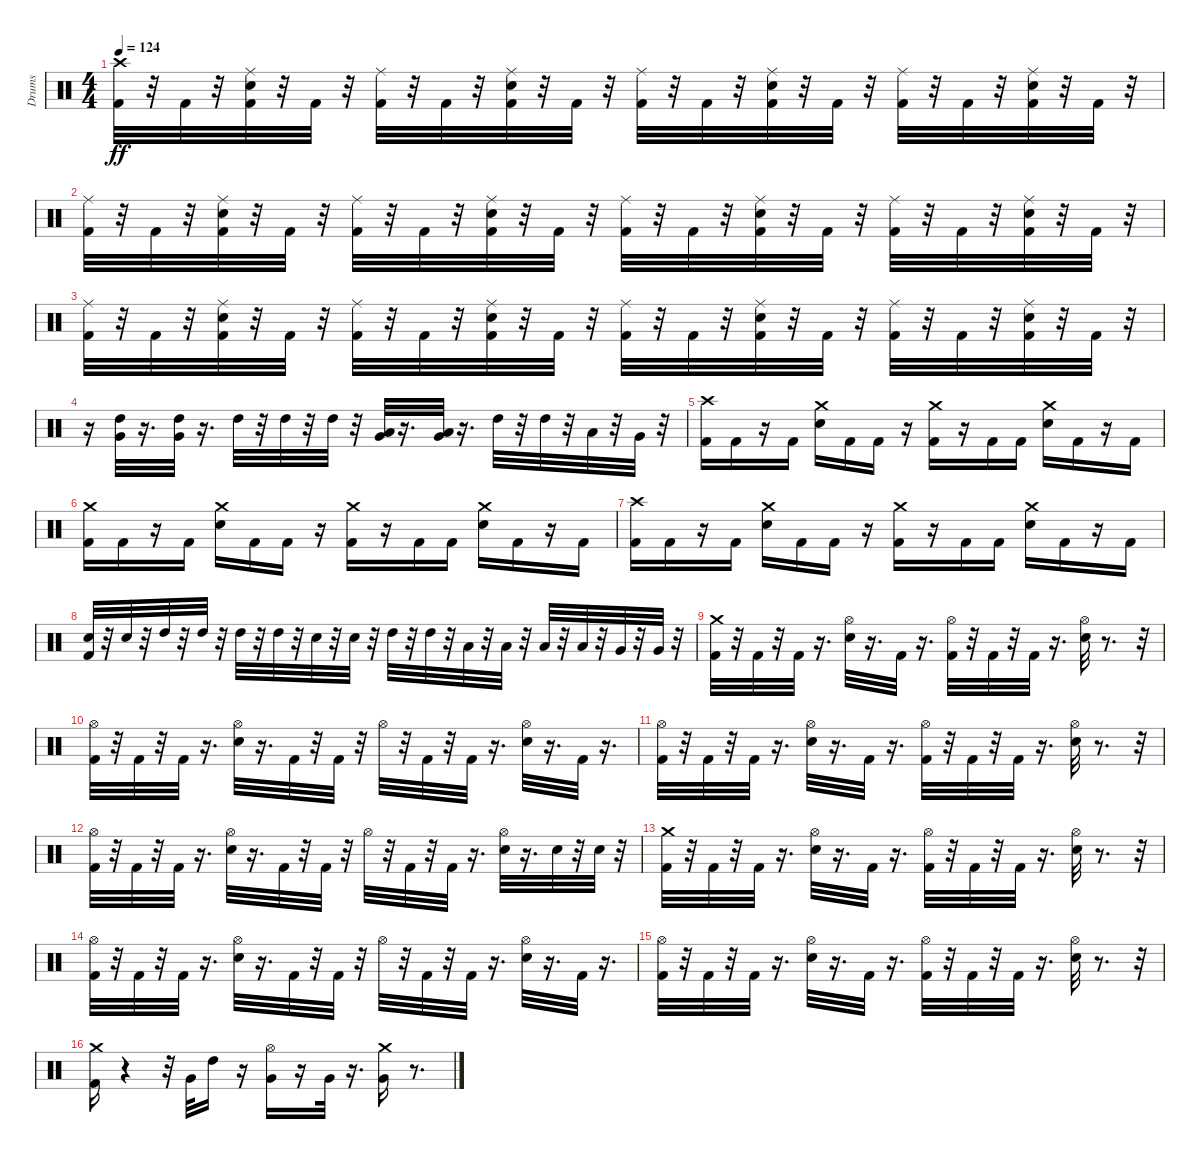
\track ("Drums" "Drums") {instrument percussion}
\staff {score}
\articulation defaults
\ts (4 4)
\tempo 124
\clef neutral
\ks c
("Kick (hit) 2" "Crash high (hit)").32{dy ff} r.32 "Kick (hit) 2".32 r.32 ("Kick (hit) 2" "Electric Snare (hit)" "Ride (middle)").32 r.32 "Kick (hit) 2".32 r.32 ("Kick (hit) 2" "Ride (middle)").32 r.32 "Kick (hit) 2".32 r.32 ("Electric Snare (hit)" "Kick (hit) 2" "Ride (middle)").32 r.32 "Kick (hit) 2".32 r.32 ("Kick (hit) 2" "Ride (middle)").32 r.32 "Kick (hit) 2".32 r.32 ("Electric Snare (hit)" "Kick (hit) 2" "Ride (middle)").32 r.32 "Kick (hit) 2".32 r.32 ("Kick (hit) 2" "Ride (middle)").32 r.32 "Kick (hit) 2".32 r.32 ("Electric Snare (hit)" "Kick (hit) 2" "Ride (middle)").32 r.32 "Kick (hit) 2".32 r.32 |
("Kick (hit) 2" "Ride (middle)").32 r.32 "Kick (hit) 2".32 r.32 ("Kick (hit) 2" "Electric Snare (hit)" "Ride (middle)").32 r.32 "Kick (hit) 2".32 r.32 ("Kick (hit) 2" "Ride (middle)").32 r.32 "Kick (hit) 2".32 r.32 ("Electric Snare (hit)" "Kick (hit) 2" "Ride (middle)").32 r.32 "Kick (hit) 2".32 r.32 ("Kick (hit) 2" "Ride (middle)").32 r.32 "Kick (hit) 2".32 r.32 ("Electric Snare (hit)" "Kick (hit) 2" "Ride (middle)").32 r.32 "Kick (hit) 2".32 r.32 ("Kick (hit) 2" "Ride (middle)").32 r.32 "Kick (hit) 2".32 r.32 ("Electric Snare (hit)" "Kick (hit) 2" "Ride (middle)").32 r.32 "Kick (hit) 2".32 r.32 |
("Kick (hit) 2" "Ride (middle)").32 r.32 "Kick (hit) 2".32 r.32 ("Kick (hit) 2" "Electric Snare (hit)" "Ride (middle)").32 r.32 "Kick (hit) 2".32 r.32 ("Kick (hit) 2" "Ride (middle)").32 r.32 "Kick (hit) 2".32 r.32 ("Electric Snare (hit)" "Kick (hit) 2" "Ride (middle)").32 r.32 "Kick (hit) 2".32 r.32 ("Kick (hit) 2" "Ride (middle)").32 r.32 "Kick (hit) 2".32 r.32 ("Electric Snare (hit)" "Kick (hit) 2" "Ride (middle)").32 r.32 "Kick (hit) 2".32 r.32 ("Kick (hit) 2" "Ride (middle)").32 r.32 "Kick (hit) 2".32 r.32 ("Electric Snare (hit)" "Kick (hit) 2" "Ride (middle)").32 r.32 "Kick (hit) 2".32 r.32 |
r.16 ("Very Low Tom (hit)" "High Tom (hit)").32 r.16{d} ("Very Low Tom (hit)" "High Tom (hit)").32 r.16{d} "High Tom (hit)".32 r.32 "High Tom (hit)".32 r.32 "High Tom (hit)".32 r.32 ("Very Low Tom (hit)" "Low Tom (hit)").32 r.16{d} ("Low Tom (hit)" "Very Low Tom (hit)").32 r.16{d} "High Tom (hit)".32 r.32 "High Tom (hit)".32 r.32 "Low Tom (hit)".32 r.32 "Very Low Tom (hit)".32 r.32 |
("Kick (hit) 2" "Crash high (hit)").16 "Kick (hit) 2".16 r.16 "Kick (hit) 2".16 ("Crash medium (hit)" "Electric Snare (hit)").16 "Kick (hit) 2".16 "Kick (hit) 2".16 r.16 ("Crash medium (hit)" "Kick (hit) 2").16 r.16 "Kick (hit) 2".16 "Kick (hit) 2".16 ("Crash medium (hit)" "Electric Snare (hit)").16 "Kick (hit) 2".16 r.16 "Kick (hit) 2".16 |
("Crash medium (hit)" "Kick (hit) 2").16 "Kick (hit) 2".16 r.16 "Kick (hit) 2".16 ("Crash medium (hit)" "Electric Snare (hit)").16 "Kick (hit) 2".16 "Kick (hit) 2".16 r.16 ("Crash medium (hit)" "Kick (hit) 2").16 r.16 "Kick (hit) 2".16 "Kick (hit) 2".16 ("Crash medium (hit)" "Electric Snare (hit)").16 "Kick (hit) 2".16 r.16 "Kick (hit) 2".16 |
("Kick (hit) 2" "Crash high (hit)").16 "Kick (hit) 2".16 r.16 "Kick (hit) 2".16 ("Crash medium (hit)" "Electric Snare (hit)").16 "Kick (hit) 2".16 "Kick (hit) 2".16 r.16 ("Crash medium (hit)" "Kick (hit) 2").16 r.16 "Kick (hit) 2".16 "Kick (hit) 2".16 ("Crash medium (hit)" "Electric Snare (hit)").16 "Kick (hit) 2".16 r.16 "Kick (hit) 2".16 |
("Kick (hit) 2" "Electric Snare (hit)").32 r.32 "Electric Snare (hit)".32 r.32 "High Tom (hit)".32 r.32 "High Tom (hit)".32 r.32 "High Tom (hit)".32 r.32 "High Tom (hit)".32 r.32 "Electric Snare (hit)".32 r.32 "Electric Snare (hit)".32 r.32 "High Tom (hit)".32 r.32 "High Tom (hit)".32 r.32 "Low Tom (hit)".32 r.32 "Low Tom (hit)".32 r.32 "Low Tom (hit)".32 r.32 "Low Tom (hit)".32 r.32 "Very Low Tom (hit)".32 r.32 "Very Low Tom (hit)".32 r.32 |
("Kick (hit) 2" "Crash medium (hit)").32 r.32 "Kick (hit) 2".32 r.32 "Kick (hit) 2".32 r.16{d} ("Electric Snare (hit)" "Hi-Hat (open)").32 r.16{d} "Kick (hit) 2".32 r.16{d} ("Hi-Hat (open)" "Kick (hit) 2").32 r.32 "Kick (hit) 2".32 r.32 "Kick (hit) 2".32 r.16{d} ("Electric Snare (hit)" "Hi-Hat (open)").32 r.8{d} r.32 |
("Hi-Hat (open)" "Kick (hit) 2").32 r.32 "Kick (hit) 2".32 r.32 "Kick (hit) 2".32 r.16{d} ("Hi-Hat (open)" "Electric Snare (hit)").32 r.16{d} "Kick (hit) 2".32 r.32 "Kick (hit) 2".32 r.32 "Hi-Hat (open)".32 r.32 "Kick (hit) 2".32 r.32 "Kick (hit) 2".32 r.16{d} ("Hi-Hat (open)" "Electric Snare (hit)").32 r.16{d} "Kick (hit) 2".32 r.16{d} |
("Kick (hit) 2" "Hi-Hat (open)").32 r.32 "Kick (hit) 2".32 r.32 "Kick (hit) 2".32 r.16{d} ("Electric Snare (hit)" "Hi-Hat (open)").32 r.16{d} "Kick (hit) 2".32 r.16{d} ("Kick (hit) 2" "Hi-Hat (open)").32 r.32 "Kick (hit) 2".32 r.32 "Kick (hit) 2".32 r.16{d} ("Electric Snare (hit)" "Hi-Hat (open)").32 r.8{d} r.32 |
("Hi-Hat (open)" "Kick (hit) 2").32 r.32 "Kick (hit) 2".32 r.32 "Kick (hit) 2".32 r.16{d} ("Hi-Hat (open)" "Electric Snare (hit)").32 r.16{d} "Kick (hit) 2".32 r.32 "Kick (hit) 2".32 r.32 "Hi-Hat (open)".32 r.32 "Kick (hit) 2".32 r.32 "Kick (hit) 2".32 r.16{d} ("Electric Snare (hit)" "Hi-Hat (open)").32 r.16{d} "Electric Snare (hit)".32 r.32 "Electric Snare (hit)".32 r.32 |
("Kick (hit) 2" "Crash medium (hit)").32 r.32 "Kick (hit) 2".32 r.32 "Kick (hit) 2".32 r.16{d} ("Electric Snare (hit)" "Hi-Hat (open)").32 r.16{d} "Kick (hit) 2".32 r.16{d} ("Hi-Hat (open)" "Kick (hit) 2").32 r.32 "Kick (hit) 2".32 r.32 "Kick (hit) 2".32 r.16{d} ("Electric Snare (hit)" "Hi-Hat (open)").32 r.8{d} r.32 |
("Hi-Hat (open)" "Kick (hit) 2").32 r.32 "Kick (hit) 2".32 r.32 "Kick (hit) 2".32 r.16{d} ("Hi-Hat (open)" "Electric Snare (hit)").32 r.16{d} "Kick (hit) 2".32 r.32 "Kick (hit) 2".32 r.32 "Hi-Hat (open)".32 r.32 "Kick (hit) 2".32 r.32 "Kick (hit) 2".32 r.16{d} ("Hi-Hat (open)" "Electric Snare (hit)").32 r.16{d} "Kick (hit) 2".32 r.16{d} |
("Kick (hit) 2" "Hi-Hat (open)").32 r.32 "Kick (hit) 2".32 r.32 "Kick (hit) 2".32 r.16{d} ("Electric Snare (hit)" "Hi-Hat (open)").32 r.16{d} "Kick (hit) 2".32 r.16{d} ("Kick (hit) 2" "Hi-Hat (open)").32 r.32 "Kick (hit) 2".32 r.32 "Kick (hit) 2".32 r.16{d} ("Electric Snare (hit)" "Hi-Hat (open)").32 r.8{d} r.32 |
("Crash medium (hit)" "Kick (hit) 2").16 r.4 r.32 "Very Low Tom (hit)".32 "High Tom (hit)".16 r.16 ("Very Low Tom (hit)" "Hi-Hat (open)").16 r.16 "Very Low Tom (hit)".32 r.16{d} ("Very Low Tom (hit)" "Crash medium (hit)").16 r.8{d}
